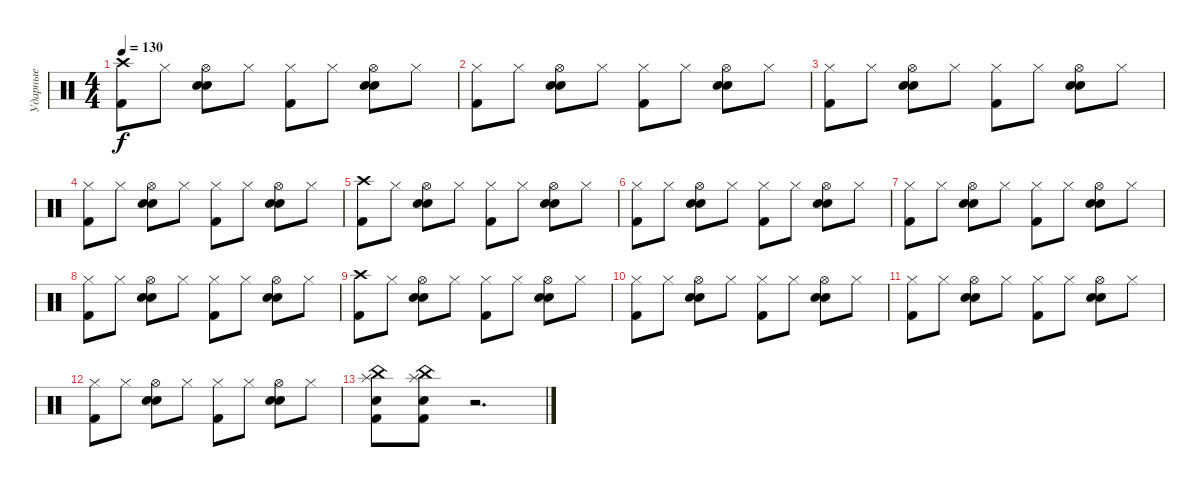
\track ("Ударные" "Ударные") {instrument percussion}
\staff {score}
\articulation defaults
\ts (4 4)
\tempo 130
\clef neutral
\ks c
("Crash high (hit)" "Kick (hit) 2").8{dy f} "Hi-Hat (closed)".8 ("Hi-Hat (open)" "Hand Clap (hit)" "Snare (hit) 2").8 "Hi-Hat (closed)".8 ("Hi-Hat (closed)" "Kick (hit) 2").8 "Hi-Hat (closed)".8 ("Hi-Hat (open)" "Hand Clap (hit)" "Snare (hit) 2").8 "Hi-Hat (closed)".8 |
("Hi-Hat (closed)" "Kick (hit) 2").8 "Hi-Hat (closed)".8 ("Hi-Hat (open)" "Hand Clap (hit)" "Snare (hit) 2").8 "Hi-Hat (closed)".8 ("Hi-Hat (closed)" "Kick (hit) 2").8 "Hi-Hat (closed)".8 ("Hi-Hat (open)" "Hand Clap (hit)" "Snare (hit) 2").8 "Hi-Hat (closed)".8 |
("Hi-Hat (closed)" "Kick (hit) 2").8 "Hi-Hat (closed)".8 ("Hi-Hat (open)" "Hand Clap (hit)" "Snare (hit) 2").8 "Hi-Hat (closed)".8 ("Hi-Hat (closed)" "Kick (hit) 2").8 "Hi-Hat (closed)".8 ("Hi-Hat (open)" "Hand Clap (hit)" "Snare (hit) 2").8 "Hi-Hat (closed)".8 |
("Hi-Hat (closed)" "Kick (hit) 2").8 "Hi-Hat (closed)".8 ("Hi-Hat (open)" "Hand Clap (hit)" "Snare (hit) 2").8 "Hi-Hat (closed)".8 ("Hi-Hat (closed)" "Kick (hit) 2").8 "Hi-Hat (closed)".8 ("Hi-Hat (open)" "Hand Clap (hit)" "Snare (hit) 2").8 "Hi-Hat (closed)".8 |
("Crash high (hit)" "Kick (hit) 2").8{volume 14} "Hi-Hat (closed)".8 ("Hi-Hat (open)" "Hand Clap (hit)" "Snare (hit) 2").8 "Hi-Hat (closed)".8 ("Hi-Hat (closed)" "Kick (hit) 2").8 "Hi-Hat (closed)".8 ("Hi-Hat (open)" "Hand Clap (hit)" "Snare (hit) 2").8 "Hi-Hat (closed)".8 |
("Hi-Hat (closed)" "Kick (hit) 2").8 "Hi-Hat (closed)".8 ("Hi-Hat (open)" "Hand Clap (hit)" "Snare (hit) 2").8 "Hi-Hat (closed)".8 ("Hi-Hat (closed)" "Kick (hit) 2").8 "Hi-Hat (closed)".8 ("Hi-Hat (open)" "Hand Clap (hit)" "Snare (hit) 2").8 "Hi-Hat (closed)".8 |
("Hi-Hat (closed)" "Kick (hit) 2").8 "Hi-Hat (closed)".8 ("Hi-Hat (open)" "Hand Clap (hit)" "Snare (hit) 2").8 "Hi-Hat (closed)".8 ("Hi-Hat (closed)" "Kick (hit) 2").8 "Hi-Hat (closed)".8 ("Hi-Hat (open)" "Hand Clap (hit)" "Snare (hit) 2").8 "Hi-Hat (closed)".8 |
("Hi-Hat (closed)" "Kick (hit) 2").8 "Hi-Hat (closed)".8 ("Hi-Hat (open)" "Hand Clap (hit)" "Snare (hit) 2").8 "Hi-Hat (closed)".8 ("Hi-Hat (closed)" "Kick (hit) 2").8 "Hi-Hat (closed)".8 ("Hi-Hat (open)" "Hand Clap (hit)" "Snare (hit) 2").8 "Hi-Hat (closed)".8 |
("Crash high (hit)" "Kick (hit) 2").8 "Hi-Hat (closed)".8 ("Hi-Hat (open)" "Hand Clap (hit)" "Snare (hit) 2").8 "Hi-Hat (closed)".8 ("Hi-Hat (closed)" "Kick (hit) 2").8 "Hi-Hat (closed)".8 ("Hi-Hat (open)" "Hand Clap (hit)" "Snare (hit) 2").8 "Hi-Hat (closed)".8 |
("Hi-Hat (closed)" "Kick (hit) 2").8 "Hi-Hat (closed)".8 ("Hi-Hat (open)" "Hand Clap (hit)" "Snare (hit) 2").8 "Hi-Hat (closed)".8 ("Hi-Hat (closed)" "Kick (hit) 2").8 "Hi-Hat (closed)".8 ("Hi-Hat (open)" "Hand Clap (hit)" "Snare (hit) 2").8 "Hi-Hat (closed)".8 |
("Hi-Hat (closed)" "Kick (hit) 2").8 "Hi-Hat (closed)".8 ("Hi-Hat (open)" "Hand Clap (hit)" "Snare (hit) 2").8 "Hi-Hat (closed)".8 ("Hi-Hat (closed)" "Kick (hit) 2").8 "Hi-Hat (closed)".8 ("Hi-Hat (open)" "Hand Clap (hit)" "Snare (hit) 2").8 "Hi-Hat (closed)".8 |
("Hi-Hat (closed)" "Kick (hit) 2").8 "Hi-Hat (closed)".8 ("Hi-Hat (open)" "Hand Clap (hit)" "Snare (hit) 2").8 "Hi-Hat (closed)".8 ("Hi-Hat (closed)" "Kick (hit) 2").8 "Hi-Hat (closed)".8 ("Hi-Hat (open)" "Hand Clap (hit)" "Snare (hit) 2").8 "Hi-Hat (closed)".8 |
("Splash (hit)" "China (hit)" "Snare (hit) 2" "Kick (hit) 2").8 ("Splash (hit)" "China (hit)" "Snare (hit) 2" "Kick (hit) 2").8 r.2{d}
